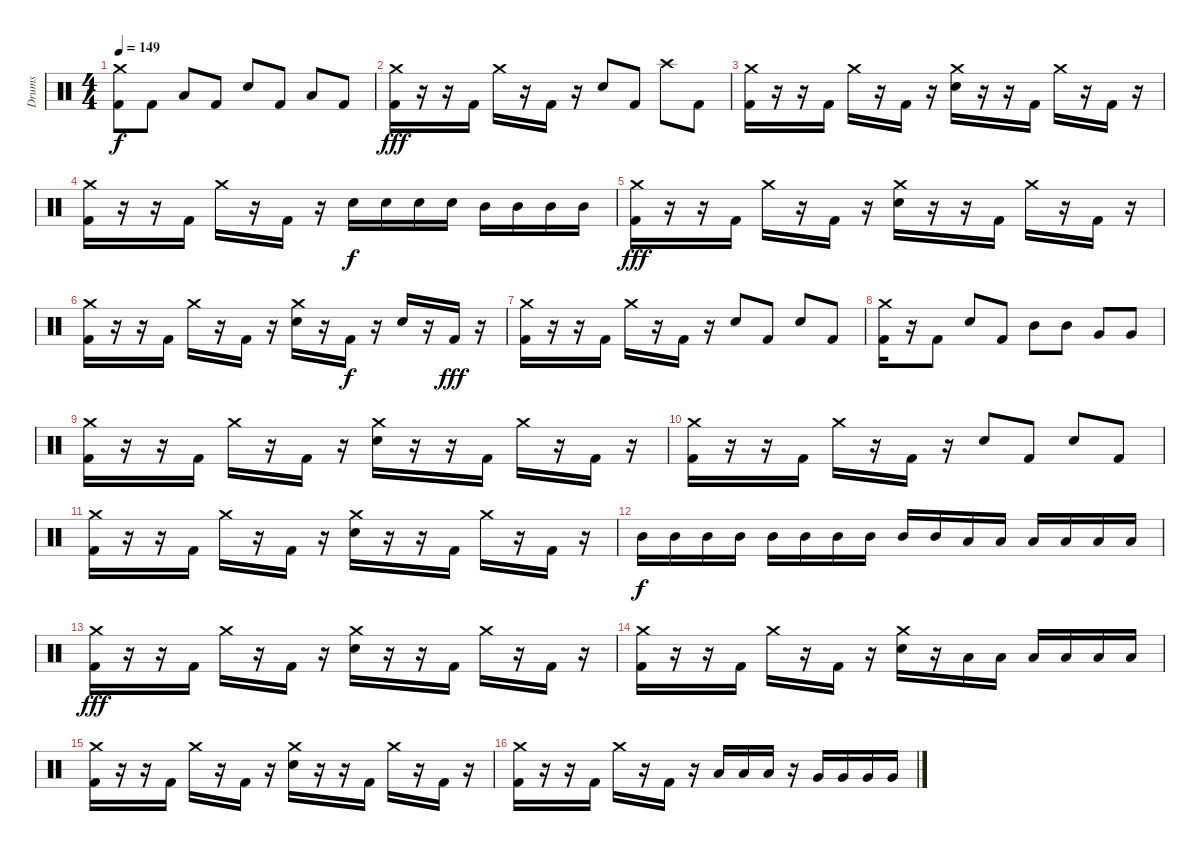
\track ("Drums" "Drums") {instrument percussion}
\staff {score}
\articulation defaults
\ts (4 4)
\tempo 149
\clef neutral
\ks c
("Crash medium (hit)" "Kick (hit) 2").8{dy f} "Kick (hit) 2".8 "Low Tom (hit)".8 "Kick (hit) 2".8 "Electric Snare (hit)".8 "Kick (hit) 2".8 "Low Tom (hit)".8 "Kick (hit) 2".8 |
("Crash medium (hit)" "Kick (hit) 2").16{dy fff} r.16 r.16 "Kick (hit) 2".16 "Crash medium (hit)".16 r.16 "Kick (hit) 2".16 r.16 "Electric Snare (hit)".8 "Kick (hit) 2".8 "Crash high (hit)".8 "Kick (hit) 2".8 |
("Crash medium (hit)" "Kick (hit) 2").16 r.16 r.16 "Kick (hit) 2".16 "Crash medium (hit)".16 r.16 "Kick (hit) 2".16 r.16 ("Crash medium (hit)" "Electric Snare (hit)").16 r.16 r.16 "Kick (hit) 2".16 "Crash medium (hit)".16 r.16 "Kick (hit) 2".16 r.16 |
("Crash medium (hit)" "Kick (hit) 2").16 r.16 r.16 "Kick (hit) 2".16 "Crash medium (hit)".16 r.16 "Kick (hit) 2".16 r.16 "Electric Snare (hit)".16{dy f} "Electric Snare (hit)".16 "Electric Snare (hit)".16 "Electric Snare (hit)".16 "Mid Tom (hit)".16 "Mid Tom (hit)".16 "Mid Tom (hit)".16 "Mid Tom (hit)".16 |
("Crash medium (hit)" "Kick (hit) 2").16{dy fff} r.16 r.16 "Kick (hit) 2".16 "Crash medium (hit)".16 r.16 "Kick (hit) 2".16 r.16 ("Crash medium (hit)" "Electric Snare (hit)").16 r.16 r.16 "Kick (hit) 2".16 "Crash medium (hit)".16 r.16 "Kick (hit) 2".16 r.16 |
("Crash medium (hit)" "Kick (hit) 2").16 r.16 r.16 "Kick (hit) 2".16 "Crash medium (hit)".16 r.16 "Kick (hit) 2".16 r.16 ("Crash medium (hit)" "Electric Snare (hit)").16 r.16 "Kick (hit) 2".16{dy f} r.16 "Electric Snare (hit)".16 r.16 "Kick (hit) 2".16{dy fff} r.16 |
("Crash medium (hit)" "Kick (hit) 2").16 r.16 r.16 "Kick (hit) 2".16 "Crash medium (hit)".16 r.16 "Kick (hit) 2".16 r.16 "Electric Snare (hit)".8 "Kick (hit) 2".8 "Electric Snare (hit)".8 "Kick (hit) 2".8 |
("Crash medium (hit)" "Kick (hit) 2").16 r.16 "Kick (hit) 2".8 "Electric Snare (hit)".8 "Kick (hit) 2".8 "Mid Tom (hit)".8 "Mid Tom (hit)".8 "Very Low Tom (hit)".8 "Very Low Tom (hit)".8 |
("Crash medium (hit)" "Kick (hit) 2").16 r.16 r.16 "Kick (hit) 2".16 "Crash medium (hit)".16 r.16 "Kick (hit) 2".16 r.16 ("Crash medium (hit)" "Electric Snare (hit)").16 r.16 r.16 "Kick (hit) 2".16 "Crash medium (hit)".16 r.16 "Kick (hit) 2".16 r.16 |
("Crash medium (hit)" "Kick (hit) 2").16 r.16 r.16 "Kick (hit) 2".16 "Crash medium (hit)".16 r.16 "Kick (hit) 2".16 r.16 "Electric Snare (hit)".8 "Kick (hit) 2".8 "Electric Snare (hit)".8 "Kick (hit) 2".8 |
("Crash medium (hit)" "Kick (hit) 2").16 r.16 r.16 "Kick (hit) 2".16 "Crash medium (hit)".16 r.16 "Kick (hit) 2".16 r.16 ("Crash medium (hit)" "Electric Snare (hit)").16 r.16 r.16 "Kick (hit) 2".16 "Crash medium (hit)".16 r.16 "Kick (hit) 2".16 r.16 |
"Mid Tom (hit)".16{dy f} "Mid Tom (hit)".16 "Mid Tom (hit)".16 "Mid Tom (hit)".16 "Mid Tom (hit)".16 "Mid Tom (hit)".16 "Mid Tom (hit)".16 "Mid Tom (hit)".16 "Mid Tom (hit)".16 "Mid Tom (hit)".16 "Low Tom (hit)".16 "Low Tom (hit)".16 "Low Tom (hit)".16 "Low Tom (hit)".16 "Low Tom (hit)".16 "Low Tom (hit)".16 |
("Crash medium (hit)" "Kick (hit) 2").16{dy fff} r.16 r.16 "Kick (hit) 2".16 "Crash medium (hit)".16 r.16 "Kick (hit) 2".16 r.16 ("Crash medium (hit)" "Electric Snare (hit)").16 r.16 r.16 "Kick (hit) 2".16 "Crash medium (hit)".16 r.16 "Kick (hit) 2".16 r.16 |
("Crash medium (hit)" "Kick (hit) 2").16 r.16 r.16 "Kick (hit) 2".16 "Crash medium (hit)".16 r.16 "Kick (hit) 2".16 r.16 ("Crash medium (hit)" "Electric Snare (hit)").16 r.16 "Low Tom (hit)".16 "Low Tom (hit)".16 "Low Tom (hit)".16 "Low Tom (hit)".16 "Low Tom (hit)".16 "Low Tom (hit)".16 |
("Crash medium (hit)" "Kick (hit) 2").16 r.16 r.16 "Kick (hit) 2".16 "Crash medium (hit)".16 r.16 "Kick (hit) 2".16 r.16 ("Crash medium (hit)" "Electric Snare (hit)").16 r.16 r.16 "Kick (hit) 2".16 "Crash medium (hit)".16 r.16 "Kick (hit) 2".16 r.16 |
("Crash medium (hit)" "Kick (hit) 2").16 r.16 r.16 "Kick (hit) 2".16 "Crash medium (hit)".16 r.16 "Kick (hit) 2".16 r.16 "Low Tom (hit)".16 "Low Tom (hit)".16 "Low Tom (hit)".16 r.16 "Very Low Tom (hit)".16 "Very Low Tom (hit)".16 "Very Low Tom (hit)".16 "Very Low Tom (hit)".16
